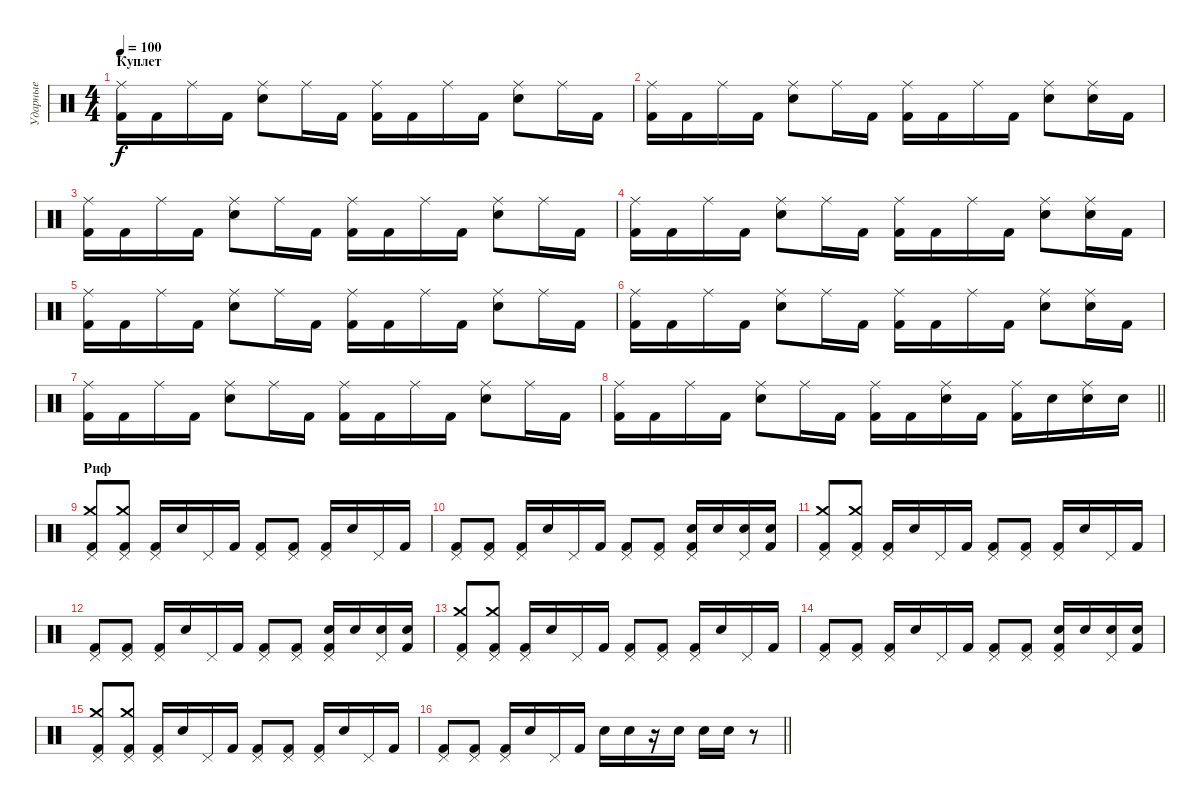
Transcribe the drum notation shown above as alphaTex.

\track ("Ударные" "Ударные") {instrument percussion}
\staff {score}
\articulation defaults
\ts (4 4)
\section ("" "Куплет")
\tempo 100
\clef neutral
\ks c
("Ride (middle)" "Kick (hit) 2").16{dy f} "Kick (hit) 2".16 "Ride (middle)".16 "Kick (hit) 2".16 ("Ride (middle)" "Snare (hit) 2").8 "Ride (middle)".16 "Kick (hit) 2".16 ("Ride (middle)" "Kick (hit) 2").16 "Kick (hit) 2".16 "Ride (middle)".16 "Kick (hit) 2".16 ("Ride (middle)" "Snare (hit) 2").8 "Ride (middle)".16 "Kick (hit) 2".16 |
("Ride (middle)" "Kick (hit) 2").16 "Kick (hit) 2".16 "Ride (middle)".16 "Kick (hit) 2".16 ("Ride (middle)" "Snare (hit) 2").8 "Ride (middle)".16 "Kick (hit) 2".16 ("Ride (middle)" "Kick (hit) 2").16 "Kick (hit) 2".16 "Ride (middle)".16 "Kick (hit) 2".16 ("Ride (middle)" "Snare (hit) 2").8 ("Ride (middle)" "Snare (hit) 2").16 "Kick (hit) 2".16 |
("Ride (middle)" "Kick (hit) 2").16 "Kick (hit) 2".16 "Ride (middle)".16 "Kick (hit) 2".16 ("Ride (middle)" "Snare (hit) 2").8 "Ride (middle)".16 "Kick (hit) 2".16 ("Ride (middle)" "Kick (hit) 2").16 "Kick (hit) 2".16 "Ride (middle)".16 "Kick (hit) 2".16 ("Ride (middle)" "Snare (hit) 2").8 "Ride (middle)".16 "Kick (hit) 2".16 |
("Ride (middle)" "Kick (hit) 2").16 "Kick (hit) 2".16 "Ride (middle)".16 "Kick (hit) 2".16 ("Ride (middle)" "Snare (hit) 2").8 "Ride (middle)".16 "Kick (hit) 2".16 ("Ride (middle)" "Kick (hit) 2").16 "Kick (hit) 2".16 "Ride (middle)".16 "Kick (hit) 2".16 ("Ride (middle)" "Snare (hit) 2").8 ("Ride (middle)" "Snare (hit) 2").16 "Kick (hit) 2".16 |
("Ride (middle)" "Kick (hit) 2").16 "Kick (hit) 2".16 "Ride (middle)".16 "Kick (hit) 2".16 ("Ride (middle)" "Snare (hit) 2").8 "Ride (middle)".16 "Kick (hit) 2".16 ("Ride (middle)" "Kick (hit) 2").16 "Kick (hit) 2".16 "Ride (middle)".16 "Kick (hit) 2".16 ("Ride (middle)" "Snare (hit) 2").8 "Ride (middle)".16 "Kick (hit) 2".16 |
("Ride (middle)" "Kick (hit) 2").16 "Kick (hit) 2".16 "Ride (middle)".16 "Kick (hit) 2".16 ("Ride (middle)" "Snare (hit) 2").8 "Ride (middle)".16 "Kick (hit) 2".16 ("Ride (middle)" "Kick (hit) 2").16 "Kick (hit) 2".16 "Ride (middle)".16 "Kick (hit) 2".16 ("Ride (middle)" "Snare (hit) 2").8 ("Ride (middle)" "Snare (hit) 2").16 "Kick (hit) 2".16 |
("Ride (middle)" "Kick (hit) 2").16 "Kick (hit) 2".16 "Ride (middle)".16 "Kick (hit) 2".16 ("Ride (middle)" "Snare (hit) 2").8 "Ride (middle)".16 "Kick (hit) 2".16 ("Ride (middle)" "Kick (hit) 2").16 "Kick (hit) 2".16 "Ride (middle)".16 "Kick (hit) 2".16 ("Ride (middle)" "Snare (hit) 2").8 "Ride (middle)".16 "Kick (hit) 2".16 |
\barLineRight lightlight
("Ride (middle)" "Kick (hit) 2").16 "Kick (hit) 2".16 "Ride (middle)".16 "Kick (hit) 2".16 ("Ride (middle)" "Snare (hit) 2").8 "Ride (middle)".16 "Kick (hit) 2".16 ("Ride (middle)" "Kick (hit) 2").16 "Kick (hit) 2".16 ("Ride (middle)" "Snare (hit) 2").16 "Kick (hit) 2".16 ("Ride (middle)" "Kick (hit) 2").16 "Snare (hit) 2".16 ("Ride (middle)" "Snare (hit) 2").16 "Snare (hit) 2".16 |
\section ("" "Риф")
("Kick (hit) 2" "Crash medium (hit)" "Pedal Hi-Hat (hit)").8 ("Kick (hit) 2" "Crash medium (hit)" "Pedal Hi-Hat (hit)").8 ("Pedal Hi-Hat (hit)" "Kick (hit) 2").16 "Snare (hit) 2".16 "Pedal Hi-Hat (hit)".16 "Kick (hit) 2".16 ("Pedal Hi-Hat (hit)" "Kick (hit) 2").8 ("Pedal Hi-Hat (hit)" "Kick (hit) 2").8 ("Pedal Hi-Hat (hit)" "Kick (hit) 2").16 "Snare (hit) 2".16 "Pedal Hi-Hat (hit)".16 "Kick (hit) 2".16 |
("Pedal Hi-Hat (hit)" "Kick (hit) 2").8 ("Pedal Hi-Hat (hit)" "Kick (hit) 2").8 ("Pedal Hi-Hat (hit)" "Kick (hit) 2").16 "Snare (hit) 2".16 "Pedal Hi-Hat (hit)".16 "Kick (hit) 2".16 ("Pedal Hi-Hat (hit)" "Kick (hit) 2").8 ("Pedal Hi-Hat (hit)" "Kick (hit) 2").8 ("Pedal Hi-Hat (hit)" "Kick (hit) 2" "Snare (hit) 2").16 "Snare (hit) 2".16 ("Pedal Hi-Hat (hit)" "Snare (hit) 2").16 ("Kick (hit) 2" "Snare (hit) 2").16 |
("Kick (hit) 2" "Crash medium (hit)" "Pedal Hi-Hat (hit)").8 ("Kick (hit) 2" "Crash medium (hit)" "Pedal Hi-Hat (hit)").8 ("Pedal Hi-Hat (hit)" "Kick (hit) 2").16 "Snare (hit) 2".16 "Pedal Hi-Hat (hit)".16 "Kick (hit) 2".16 ("Pedal Hi-Hat (hit)" "Kick (hit) 2").8 ("Pedal Hi-Hat (hit)" "Kick (hit) 2").8 ("Pedal Hi-Hat (hit)" "Kick (hit) 2").16 "Snare (hit) 2".16 "Pedal Hi-Hat (hit)".16 "Kick (hit) 2".16 |
("Pedal Hi-Hat (hit)" "Kick (hit) 2").8 ("Pedal Hi-Hat (hit)" "Kick (hit) 2").8 ("Pedal Hi-Hat (hit)" "Kick (hit) 2").16 "Snare (hit) 2".16 "Pedal Hi-Hat (hit)".16 "Kick (hit) 2".16 ("Pedal Hi-Hat (hit)" "Kick (hit) 2").8 ("Pedal Hi-Hat (hit)" "Kick (hit) 2").8 ("Pedal Hi-Hat (hit)" "Kick (hit) 2" "Snare (hit) 2").16 "Snare (hit) 2".16 ("Pedal Hi-Hat (hit)" "Snare (hit) 2").16 ("Kick (hit) 2" "Snare (hit) 2").16 |
("Kick (hit) 2" "Crash medium (hit)" "Pedal Hi-Hat (hit)").8 ("Kick (hit) 2" "Crash medium (hit)" "Pedal Hi-Hat (hit)").8 ("Pedal Hi-Hat (hit)" "Kick (hit) 2").16 "Snare (hit) 2".16 "Pedal Hi-Hat (hit)".16 "Kick (hit) 2".16 ("Pedal Hi-Hat (hit)" "Kick (hit) 2").8 ("Pedal Hi-Hat (hit)" "Kick (hit) 2").8 ("Pedal Hi-Hat (hit)" "Kick (hit) 2").16 "Snare (hit) 2".16 "Pedal Hi-Hat (hit)".16 "Kick (hit) 2".16 |
("Pedal Hi-Hat (hit)" "Kick (hit) 2").8 ("Pedal Hi-Hat (hit)" "Kick (hit) 2").8 ("Pedal Hi-Hat (hit)" "Kick (hit) 2").16 "Snare (hit) 2".16 "Pedal Hi-Hat (hit)".16 "Kick (hit) 2".16 ("Pedal Hi-Hat (hit)" "Kick (hit) 2").8 ("Pedal Hi-Hat (hit)" "Kick (hit) 2").8 ("Pedal Hi-Hat (hit)" "Kick (hit) 2" "Snare (hit) 2").16 "Snare (hit) 2".16 ("Pedal Hi-Hat (hit)" "Snare (hit) 2").16 ("Kick (hit) 2" "Snare (hit) 2").16 |
("Kick (hit) 2" "Crash medium (hit)" "Pedal Hi-Hat (hit)").8 ("Kick (hit) 2" "Crash medium (hit)" "Pedal Hi-Hat (hit)").8 ("Pedal Hi-Hat (hit)" "Kick (hit) 2").16 "Snare (hit) 2".16 "Pedal Hi-Hat (hit)".16 "Kick (hit) 2".16 ("Pedal Hi-Hat (hit)" "Kick (hit) 2").8 ("Pedal Hi-Hat (hit)" "Kick (hit) 2").8 ("Pedal Hi-Hat (hit)" "Kick (hit) 2").16 "Snare (hit) 2".16 "Pedal Hi-Hat (hit)".16 "Kick (hit) 2".16 |
\barLineRight lightlight
("Pedal Hi-Hat (hit)" "Kick (hit) 2").8 ("Pedal Hi-Hat (hit)" "Kick (hit) 2").8 ("Pedal Hi-Hat (hit)" "Kick (hit) 2").16 "Snare (hit) 2".16 "Pedal Hi-Hat (hit)".16 "Kick (hit) 2".16 "Snare (hit) 2".16 "Snare (hit) 2".16 r.16 "Snare (hit) 2".16 "Snare (hit) 2".16 "Snare (hit) 2".16 r.8
